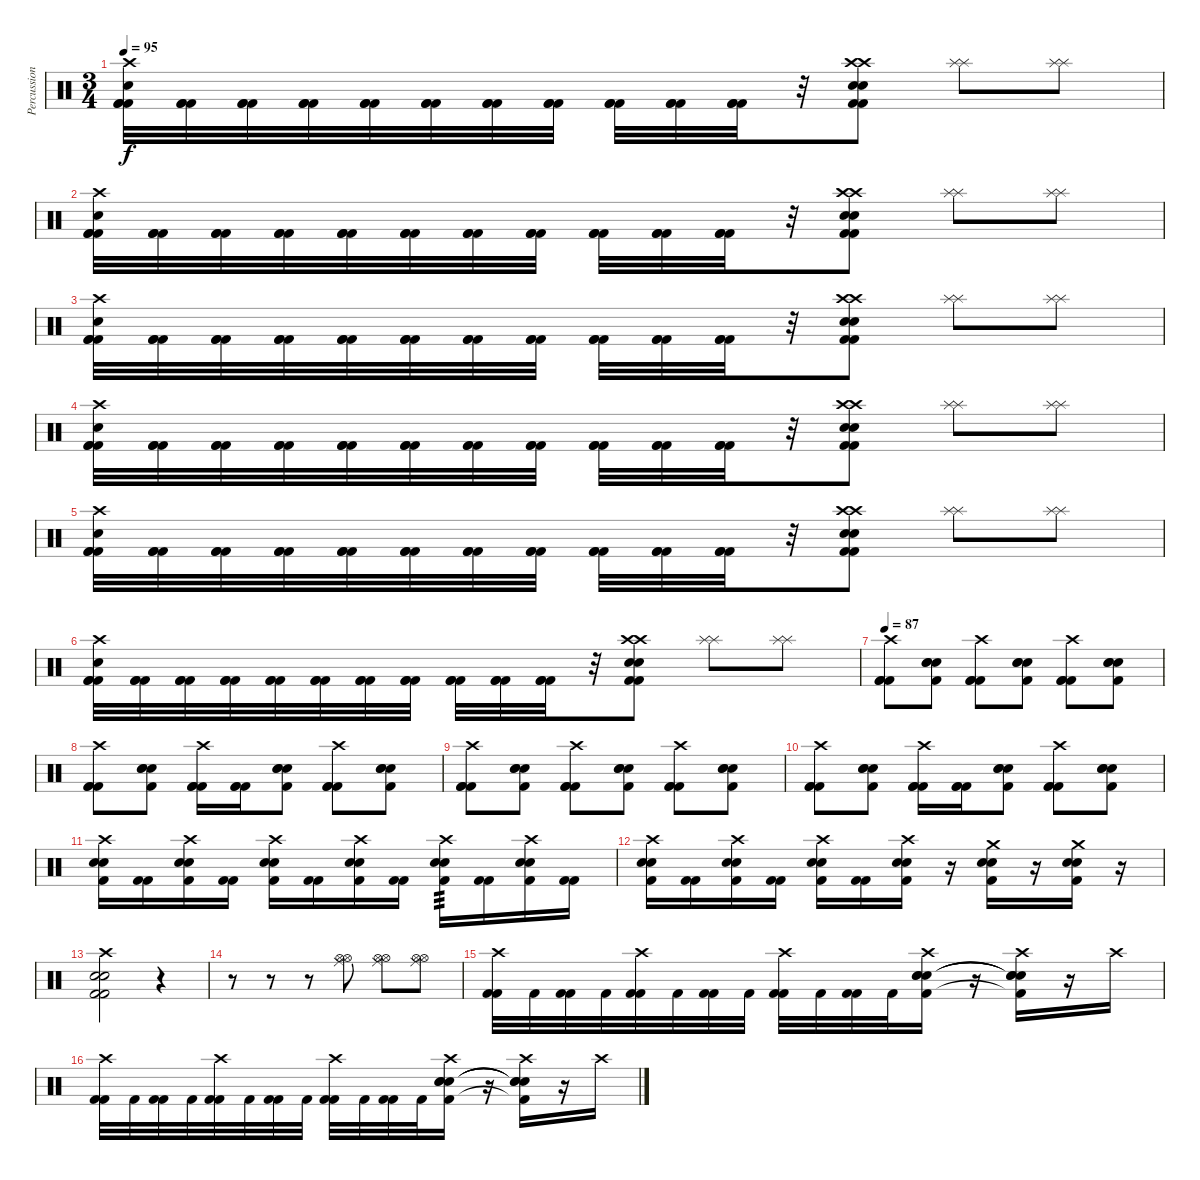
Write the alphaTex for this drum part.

\track ("Percussion" "Percussion") {instrument percussion}
\staff {score}
\articulation defaults
\ts (3 4)
\tempo 95
\clef neutral
\ks c
("Crash high (hit)" "Snare (hit) 2" "Kick (hit) 2" "Kick (hit) 2" "Kick (hit) 2").32{dy f} ("Kick (hit) 2" "Kick (hit) 2" "Kick (hit) 2").32 ("Kick (hit) 2" "Kick (hit) 2" "Kick (hit) 2").32 ("Kick (hit) 2" "Kick (hit) 2" "Kick (hit) 2").32 ("Kick (hit) 2" "Kick (hit) 2" "Kick (hit) 2").32 ("Kick (hit) 2" "Kick (hit) 2" "Kick (hit) 2").32 ("Kick (hit) 2" "Kick (hit) 2" "Kick (hit) 2").32 ("Kick (hit) 2" "Kick (hit) 2" "Kick (hit) 2").32 ("Kick (hit) 2" "Kick (hit) 2" "Kick (hit) 2").32 ("Kick (hit) 2" "Kick (hit) 2" "Kick (hit) 2").32 ("Kick (hit) 2" "Kick (hit) 2" "Kick (hit) 2").32 r.32 ("Crash high (hit)" "Crash high (hit)" "Snare (hit) 2" "Snare (hit) 2" "Kick (hit) 2" "Kick (hit) 2").8 ("Splash (hit)" "Splash (hit)").8 ("Splash (hit)" "Splash (hit)").8 |
("Crash high (hit)" "Snare (hit) 2" "Kick (hit) 2" "Kick (hit) 2" "Kick (hit) 2").32 ("Kick (hit) 2" "Kick (hit) 2" "Kick (hit) 2").32 ("Kick (hit) 2" "Kick (hit) 2" "Kick (hit) 2").32 ("Kick (hit) 2" "Kick (hit) 2" "Kick (hit) 2").32 ("Kick (hit) 2" "Kick (hit) 2" "Kick (hit) 2").32 ("Kick (hit) 2" "Kick (hit) 2" "Kick (hit) 2").32 ("Kick (hit) 2" "Kick (hit) 2" "Kick (hit) 2").32 ("Kick (hit) 2" "Kick (hit) 2" "Kick (hit) 2").32 ("Kick (hit) 2" "Kick (hit) 2" "Kick (hit) 2").32 ("Kick (hit) 2" "Kick (hit) 2" "Kick (hit) 2").32 ("Kick (hit) 2" "Kick (hit) 2" "Kick (hit) 2").32 r.32 ("Crash high (hit)" "Crash high (hit)" "Snare (hit) 2" "Snare (hit) 2" "Kick (hit) 2" "Kick (hit) 2").8 ("Splash (hit)" "Splash (hit)").8 ("Splash (hit)" "Splash (hit)").8 |
("Crash high (hit)" "Snare (hit) 2" "Kick (hit) 2" "Kick (hit) 2" "Kick (hit) 2").32 ("Kick (hit) 2" "Kick (hit) 2" "Kick (hit) 2").32 ("Kick (hit) 2" "Kick (hit) 2" "Kick (hit) 2").32 ("Kick (hit) 2" "Kick (hit) 2" "Kick (hit) 2").32 ("Kick (hit) 2" "Kick (hit) 2" "Kick (hit) 2").32 ("Kick (hit) 2" "Kick (hit) 2" "Kick (hit) 2").32 ("Kick (hit) 2" "Kick (hit) 2" "Kick (hit) 2").32 ("Kick (hit) 2" "Kick (hit) 2" "Kick (hit) 2").32 ("Kick (hit) 2" "Kick (hit) 2" "Kick (hit) 2").32 ("Kick (hit) 2" "Kick (hit) 2" "Kick (hit) 2").32 ("Kick (hit) 2" "Kick (hit) 2" "Kick (hit) 2").32 r.32 ("Crash high (hit)" "Crash high (hit)" "Snare (hit) 2" "Snare (hit) 2" "Kick (hit) 2" "Kick (hit) 2").8 ("Splash (hit)" "Splash (hit)").8 ("Splash (hit)" "Splash (hit)").8 |
("Crash high (hit)" "Snare (hit) 2" "Kick (hit) 2" "Kick (hit) 2" "Kick (hit) 2").32 ("Kick (hit) 2" "Kick (hit) 2" "Kick (hit) 2").32 ("Kick (hit) 2" "Kick (hit) 2" "Kick (hit) 2").32 ("Kick (hit) 2" "Kick (hit) 2" "Kick (hit) 2").32 ("Kick (hit) 2" "Kick (hit) 2" "Kick (hit) 2").32 ("Kick (hit) 2" "Kick (hit) 2" "Kick (hit) 2").32 ("Kick (hit) 2" "Kick (hit) 2" "Kick (hit) 2").32 ("Kick (hit) 2" "Kick (hit) 2" "Kick (hit) 2").32 ("Kick (hit) 2" "Kick (hit) 2" "Kick (hit) 2").32 ("Kick (hit) 2" "Kick (hit) 2" "Kick (hit) 2").32 ("Kick (hit) 2" "Kick (hit) 2" "Kick (hit) 2").32 r.32 ("Crash high (hit)" "Crash high (hit)" "Snare (hit) 2" "Snare (hit) 2" "Kick (hit) 2" "Kick (hit) 2").8 ("Splash (hit)" "Splash (hit)").8 ("Splash (hit)" "Splash (hit)").8 |
("Crash high (hit)" "Snare (hit) 2" "Kick (hit) 2" "Kick (hit) 2" "Kick (hit) 2").32 ("Kick (hit) 2" "Kick (hit) 2" "Kick (hit) 2").32 ("Kick (hit) 2" "Kick (hit) 2" "Kick (hit) 2").32 ("Kick (hit) 2" "Kick (hit) 2" "Kick (hit) 2").32 ("Kick (hit) 2" "Kick (hit) 2" "Kick (hit) 2").32 ("Kick (hit) 2" "Kick (hit) 2" "Kick (hit) 2").32 ("Kick (hit) 2" "Kick (hit) 2" "Kick (hit) 2").32 ("Kick (hit) 2" "Kick (hit) 2" "Kick (hit) 2").32 ("Kick (hit) 2" "Kick (hit) 2" "Kick (hit) 2").32 ("Kick (hit) 2" "Kick (hit) 2" "Kick (hit) 2").32 ("Kick (hit) 2" "Kick (hit) 2" "Kick (hit) 2").32 r.32 ("Crash high (hit)" "Crash high (hit)" "Snare (hit) 2" "Snare (hit) 2" "Kick (hit) 2" "Kick (hit) 2").8 ("Splash (hit)" "Splash (hit)").8 ("Splash (hit)" "Splash (hit)").8 |
("Crash high (hit)" "Snare (hit) 2" "Kick (hit) 2" "Kick (hit) 2" "Kick (hit) 2").32 ("Kick (hit) 2" "Kick (hit) 2" "Kick (hit) 2").32 ("Kick (hit) 2" "Kick (hit) 2" "Kick (hit) 2").32 ("Kick (hit) 2" "Kick (hit) 2" "Kick (hit) 2").32 ("Kick (hit) 2" "Kick (hit) 2" "Kick (hit) 2").32 ("Kick (hit) 2" "Kick (hit) 2" "Kick (hit) 2").32 ("Kick (hit) 2" "Kick (hit) 2" "Kick (hit) 2").32 ("Kick (hit) 2" "Kick (hit) 2" "Kick (hit) 2").32 ("Kick (hit) 2" "Kick (hit) 2" "Kick (hit) 2").32 ("Kick (hit) 2" "Kick (hit) 2" "Kick (hit) 2").32 ("Kick (hit) 2" "Kick (hit) 2" "Kick (hit) 2").32 r.32 ("Crash high (hit)" "Crash high (hit)" "Snare (hit) 2" "Snare (hit) 2" "Kick (hit) 2" "Kick (hit) 2").8 ("Splash (hit)" "Splash (hit)").8 ("Splash (hit)" "Splash (hit)").8 |
\tempo 87
("Crash high (hit)" "Kick (hit) 2" "Kick (hit) 2" "Kick (hit) 2").8 ("Snare (hit) 2" "Snare (hit) 2" "Snare (hit) 2" "Kick (hit) 2").8 ("Crash high (hit)" "Kick (hit) 2" "Kick (hit) 2" "Kick (hit) 2").8 ("Snare (hit) 2" "Snare (hit) 2" "Snare (hit) 2" "Kick (hit) 2").8 ("Crash high (hit)" "Kick (hit) 2" "Kick (hit) 2" "Kick (hit) 2").8 ("Snare (hit) 2" "Snare (hit) 2" "Snare (hit) 2" "Kick (hit) 2").8 |
("Crash high (hit)" "Kick (hit) 2" "Kick (hit) 2" "Kick (hit) 2").8 ("Snare (hit) 2" "Snare (hit) 2" "Snare (hit) 2" "Kick (hit) 2").8 ("Crash high (hit)" "Kick (hit) 2" "Kick (hit) 2" "Kick (hit) 2").16 ("Kick (hit) 2" "Kick (hit) 2" "Kick (hit) 2").16 ("Snare (hit) 2" "Snare (hit) 2" "Snare (hit) 2" "Kick (hit) 2").8 ("Crash high (hit)" "Kick (hit) 2" "Kick (hit) 2" "Kick (hit) 2").8 ("Snare (hit) 2" "Snare (hit) 2" "Snare (hit) 2" "Kick (hit) 2").8 |
("Crash high (hit)" "Kick (hit) 2" "Kick (hit) 2" "Kick (hit) 2").8 ("Snare (hit) 2" "Snare (hit) 2" "Snare (hit) 2" "Kick (hit) 2").8 ("Crash high (hit)" "Kick (hit) 2" "Kick (hit) 2" "Kick (hit) 2").8 ("Snare (hit) 2" "Snare (hit) 2" "Snare (hit) 2" "Kick (hit) 2").8 ("Crash high (hit)" "Kick (hit) 2" "Kick (hit) 2" "Kick (hit) 2").8 ("Snare (hit) 2" "Snare (hit) 2" "Snare (hit) 2" "Kick (hit) 2").8 |
("Crash high (hit)" "Kick (hit) 2" "Kick (hit) 2" "Kick (hit) 2").8 ("Snare (hit) 2" "Snare (hit) 2" "Snare (hit) 2" "Kick (hit) 2").8 ("Crash high (hit)" "Kick (hit) 2" "Kick (hit) 2" "Kick (hit) 2").16 ("Kick (hit) 2" "Kick (hit) 2" "Kick (hit) 2").16 ("Snare (hit) 2" "Snare (hit) 2" "Snare (hit) 2" "Kick (hit) 2").8 ("Crash high (hit)" "Kick (hit) 2" "Kick (hit) 2" "Kick (hit) 2").8 ("Snare (hit) 2" "Snare (hit) 2" "Snare (hit) 2" "Kick (hit) 2").8 |
("Crash high (hit)" "Snare (hit) 2" "Snare (hit) 2" "Kick (hit) 2").16 ("Kick (hit) 2" "Kick (hit) 2").16 ("Crash high (hit)" "Snare (hit) 2" "Snare (hit) 2" "Kick (hit) 2").16 ("Kick (hit) 2" "Kick (hit) 2").16 ("Crash high (hit)" "Snare (hit) 2" "Snare (hit) 2" "Kick (hit) 2").16 ("Kick (hit) 2" "Kick (hit) 2").16 ("Crash high (hit)" "Snare (hit) 2" "Snare (hit) 2" "Kick (hit) 2").16 ("Kick (hit) 2" "Kick (hit) 2").16 ("Crash high (hit)" "Snare (hit) 2" "Snare (hit) 2" "Kick (hit) 2").16{tp 3} ("Kick (hit) 2" "Kick (hit) 2").16 ("Crash high (hit)" "Snare (hit) 2" "Snare (hit) 2" "Kick (hit) 2").16 ("Kick (hit) 2" "Kick (hit) 2").16 |
("Crash high (hit)" "Snare (hit) 2" "Snare (hit) 2" "Kick (hit) 2").16 ("Kick (hit) 2" "Kick (hit) 2").16 ("Crash high (hit)" "Snare (hit) 2" "Snare (hit) 2" "Kick (hit) 2").16 ("Kick (hit) 2" "Kick (hit) 2").16 ("Crash high (hit)" "Snare (hit) 2" "Snare (hit) 2" "Kick (hit) 2").16 ("Kick (hit) 2" "Kick (hit) 2").16 ("Crash high (hit)" "Snare (hit) 2" "Snare (hit) 2" "Kick (hit) 2").16 r.16 ("Crash medium (hit)" "Snare (hit) 2" "Snare (hit) 2" "Kick (hit) 2").16 r.16 ("Crash medium (hit)" "Snare (hit) 2" "Snare (hit) 2" "Kick (hit) 2").16 r.16 |
("Crash high (hit)" "Snare (hit) 2" "Snare (hit) 2" "Kick (hit) 2" "Kick (hit) 2").2 r.4 |
r.8 r.8 r.8 ("Hi-Hat (open)" "Hi-Hat (open)" "Ride (middle)").8 ("Hi-Hat (open)" "Hi-Hat (open)" "Ride (middle)").8 ("Hi-Hat (open)" "Hi-Hat (open)" "Ride (middle)").8 |
("Crash high (hit)" "Kick (hit) 2" "Kick (hit) 2").32 "Kick (hit) 2".32 ("Kick (hit) 2" "Kick (hit) 2").32 "Kick (hit) 2".32 ("Crash high (hit)" "Kick (hit) 2" "Kick (hit) 2").32 "Kick (hit) 2".32 ("Kick (hit) 2" "Kick (hit) 2").32 "Kick (hit) 2".32 ("Crash high (hit)" "Kick (hit) 2" "Kick (hit) 2").32 "Kick (hit) 2".32 ("Kick (hit) 2" "Kick (hit) 2").32 "Kick (hit) 2".32 ("Crash high (hit)" "Snare (hit) 2" "Snare (hit) 2" "Snare (hit) 2" "Kick (hit) 2").16 r.16 ("Crash high (hit)" "Snare (hit) 2"{t} "Snare (hit) 2"{t} "Snare (hit) 2"{t} "Kick (hit) 2"{t}).16 r.16 "Crash high (hit)".16 |
("Crash high (hit)" "Kick (hit) 2" "Kick (hit) 2").32 "Kick (hit) 2".32 ("Kick (hit) 2" "Kick (hit) 2").32 "Kick (hit) 2".32 ("Crash high (hit)" "Kick (hit) 2" "Kick (hit) 2").32 "Kick (hit) 2".32 ("Kick (hit) 2" "Kick (hit) 2").32 "Kick (hit) 2".32 ("Crash high (hit)" "Kick (hit) 2" "Kick (hit) 2").32 "Kick (hit) 2".32 ("Kick (hit) 2" "Kick (hit) 2").32 "Kick (hit) 2".32 ("Crash high (hit)" "Snare (hit) 2" "Snare (hit) 2" "Snare (hit) 2" "Kick (hit) 2").16 r.16 ("Crash high (hit)" "Snare (hit) 2"{t} "Snare (hit) 2"{t} "Snare (hit) 2"{t} "Kick (hit) 2"{t}).16 r.16 "Crash high (hit)".16
